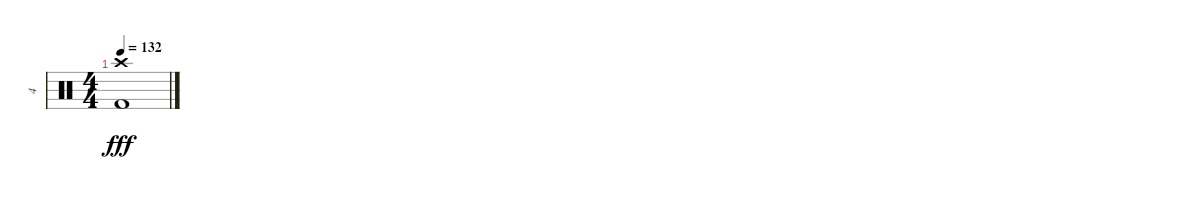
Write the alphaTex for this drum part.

\track ("4" "4") {instrument percussion}
\staff {score}
\articulation defaults
\ts (4 4)
\tempo 132
\clef neutral
\ks c
("Crash high (hit)" "Kick (hit) 2").1{dy fff}
